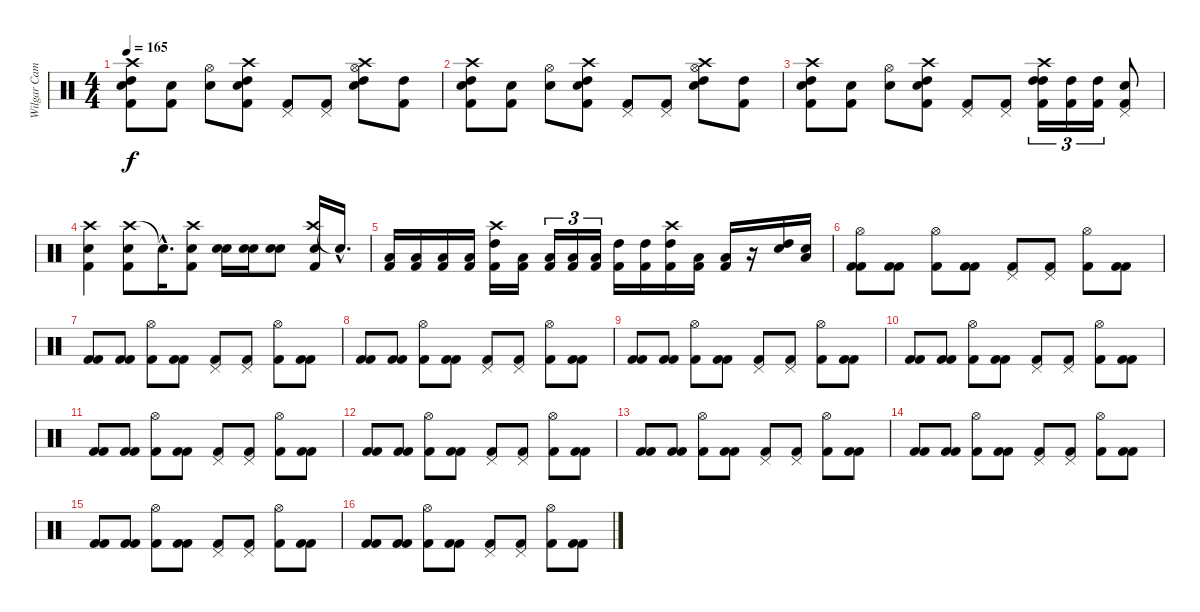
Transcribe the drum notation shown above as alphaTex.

\track ("Wilgar Campbell" "Wilgar Cam") {instrument percussion}
\staff {score}
\articulation defaults
\ts (4 4)
\tempo 165
\clef neutral
\ks c
("High Tom (hit)" "Kick (hit) 2" "Snare (hit) 2" "Crash high (hit)").8{dy f} ("Kick (hit) 2" "Snare (hit) 2").8 ("Hi-Hat (open)" "Snare (hit) 2").8 ("High Tom (hit)" "Kick (hit) 2" "Snare (hit) 2" "Crash high (hit)").8 ("Pedal Hi-Hat (hit)" "Kick (hit) 2").8 ("Pedal Hi-Hat (hit)" "Kick (hit) 2").8 ("High Tom (hit)" "Hi-Hat (open)" "Snare (hit) 2" "Crash high (hit)").8 ("Kick (hit) 2" "High Tom (hit)").8 |
("High Tom (hit)" "Kick (hit) 2" "Snare (hit) 2" "Crash high (hit)").8 ("Kick (hit) 2" "Snare (hit) 2").8 ("Hi-Hat (open)" "Snare (hit) 2").8 ("High Tom (hit)" "Kick (hit) 2" "Snare (hit) 2" "Crash high (hit)").8 ("Pedal Hi-Hat (hit)" "Kick (hit) 2").8 ("Pedal Hi-Hat (hit)" "Kick (hit) 2").8 ("High Tom (hit)" "Hi-Hat (open)" "Snare (hit) 2" "Crash high (hit)").8 ("Kick (hit) 2" "High Tom (hit)").8 |
("High Tom (hit)" "Kick (hit) 2" "Snare (hit) 2" "Crash high (hit)").8 ("Kick (hit) 2" "Snare (hit) 2").8 ("Hi-Hat (open)" "Snare (hit) 2").8 ("High Tom (hit)" "Kick (hit) 2" "Snare (hit) 2" "Crash high (hit)").8 ("Pedal Hi-Hat (hit)" "Kick (hit) 2").8 ("Pedal Hi-Hat (hit)" "Kick (hit) 2").8 ("High Tom (hit)" "Kick (hit) 2" "High Tom (hit)" "Crash high (hit)").16{tu (3 2)} ("Kick (hit) 2" "High Tom (hit)").16{tu (3 2)} ("Kick (hit) 2" "High Tom (hit)").16{tu (3 2)} ("Snare (hit) 2" "Pedal Hi-Hat (hit)" "Kick (hit) 2").8 |
("Crash high (hit)" "Kick (hit) 2" "Snare (hit) 2").4 ("Crash high (hit)" "Kick (hit) 2" "Snare (hit) 2").8 "Snare (hit)"{hac t}.16{d} ("Crash high (hit)" "Electric Snare (hit)" "Kick (hit) 2").8 ("Snare (hit) 2" "Snare (hit) 2").16 ("Electric Snare (hit)" "Electric Snare (hit)").16 ("Snare (hit) 2" "Snare (hit) 2").8 ("Crash high (hit)" "Kick (hit) 2" "Electric Snare (hit)").16 "Snare (hit)"{hac t}.16{d} |
("Low Tom (hit)" "Kick (hit) 2").16 ("Low Tom (hit)" "Kick (hit) 2").16 ("Low Tom (hit)" "Kick (hit) 2").16 ("Low Tom (hit)" "Kick (hit) 2").16 ("Crash high (hit)" "High Tom (hit)" "Kick (hit) 2").16 ("Low Tom (hit)" "Kick (hit) 2").16 ("Low Tom (hit)" "Kick (hit) 2").16{tu (3 2)} ("Low Tom (hit)" "Kick (hit) 2").16{tu (3 2)} ("Low Tom (hit)" "Kick (hit) 2").16{tu (3 2)} ("High Tom (hit)" "Kick (hit) 2").16 ("High Tom (hit)" "Kick (hit) 2").16 ("Crash high (hit)" "High Tom (hit)" "Kick (hit) 2").16 ("Low Tom (hit)" "Kick (hit) 2").16 ("Low Tom (hit)" "Kick (hit) 2").16 r.16 ("High Tom (hit)" "Snare (hit) 2").16 ("Low Tom (hit)" "Snare (hit) 2").16 |
("Hi-Hat (open)" "Kick (hit) 2" "Kick (hit) 2").8 ("Kick (hit) 2" "Kick (hit) 2").8 ("Hi-Hat (open)" "Kick (hit) 2").8 ("Kick (hit) 2" "Kick (hit) 2").8 ("Pedal Hi-Hat (hit)" "Kick (hit) 2").8 ("Pedal Hi-Hat (hit)" "Kick (hit) 2").8 ("Hi-Hat (open)" "Kick (hit) 2").8 ("Kick (hit) 2" "Kick (hit) 2").8 |
("Kick (hit) 2" "Kick (hit) 2").8 ("Kick (hit) 2" "Kick (hit) 2").8 ("Hi-Hat (open)" "Kick (hit) 2").8 ("Kick (hit) 2" "Kick (hit) 2").8 ("Pedal Hi-Hat (hit)" "Kick (hit) 2").8 ("Pedal Hi-Hat (hit)" "Kick (hit) 2").8 ("Hi-Hat (open)" "Kick (hit) 2").8 ("Kick (hit) 2" "Kick (hit) 2").8 |
("Kick (hit) 2" "Kick (hit) 2").8 ("Kick (hit) 2" "Kick (hit) 2").8 ("Hi-Hat (open)" "Kick (hit) 2").8 ("Kick (hit) 2" "Kick (hit) 2").8 ("Pedal Hi-Hat (hit)" "Kick (hit) 2").8 ("Pedal Hi-Hat (hit)" "Kick (hit) 2").8 ("Hi-Hat (open)" "Kick (hit) 2").8 ("Kick (hit) 2" "Kick (hit) 2").8 |
("Kick (hit) 2" "Kick (hit) 2").8 ("Kick (hit) 2" "Kick (hit) 2").8 ("Hi-Hat (open)" "Kick (hit) 2").8 ("Kick (hit) 2" "Kick (hit) 2").8 ("Pedal Hi-Hat (hit)" "Kick (hit) 2").8 ("Pedal Hi-Hat (hit)" "Kick (hit) 2").8 ("Hi-Hat (open)" "Kick (hit) 2").8 ("Kick (hit) 2" "Kick (hit) 2").8 |
("Kick (hit) 2" "Kick (hit) 2").8 ("Kick (hit) 2" "Kick (hit) 2").8 ("Hi-Hat (open)" "Kick (hit) 2").8 ("Kick (hit) 2" "Kick (hit) 2").8 ("Pedal Hi-Hat (hit)" "Kick (hit) 2").8 ("Pedal Hi-Hat (hit)" "Kick (hit) 2").8 ("Hi-Hat (open)" "Kick (hit) 2").8 ("Kick (hit) 2" "Kick (hit) 2").8 |
("Kick (hit) 2" "Kick (hit) 2").8 ("Kick (hit) 2" "Kick (hit) 2").8 ("Hi-Hat (open)" "Kick (hit) 2").8 ("Kick (hit) 2" "Kick (hit) 2").8 ("Pedal Hi-Hat (hit)" "Kick (hit) 2").8 ("Pedal Hi-Hat (hit)" "Kick (hit) 2").8 ("Hi-Hat (open)" "Kick (hit) 2").8 ("Kick (hit) 2" "Kick (hit) 2").8 |
("Kick (hit) 2" "Kick (hit) 2").8 ("Kick (hit) 2" "Kick (hit) 2").8 ("Hi-Hat (open)" "Kick (hit) 2").8 ("Kick (hit) 2" "Kick (hit) 2").8 ("Pedal Hi-Hat (hit)" "Kick (hit) 2").8 ("Pedal Hi-Hat (hit)" "Kick (hit) 2").8 ("Hi-Hat (open)" "Kick (hit) 2").8 ("Kick (hit) 2" "Kick (hit) 2").8 |
("Kick (hit) 2" "Kick (hit) 2").8 ("Kick (hit) 2" "Kick (hit) 2").8 ("Hi-Hat (open)" "Kick (hit) 2").8 ("Kick (hit) 2" "Kick (hit) 2").8 ("Pedal Hi-Hat (hit)" "Kick (hit) 2").8 ("Pedal Hi-Hat (hit)" "Kick (hit) 2").8 ("Hi-Hat (open)" "Kick (hit) 2").8 ("Kick (hit) 2" "Kick (hit) 2").8 |
("Kick (hit) 2" "Kick (hit) 2").8 ("Kick (hit) 2" "Kick (hit) 2").8 ("Hi-Hat (open)" "Kick (hit) 2").8 ("Kick (hit) 2" "Kick (hit) 2").8 ("Pedal Hi-Hat (hit)" "Kick (hit) 2").8 ("Pedal Hi-Hat (hit)" "Kick (hit) 2").8 ("Hi-Hat (open)" "Kick (hit) 2").8 ("Kick (hit) 2" "Kick (hit) 2").8 |
("Kick (hit) 2" "Kick (hit) 2").8 ("Kick (hit) 2" "Kick (hit) 2").8 ("Hi-Hat (open)" "Kick (hit) 2").8 ("Kick (hit) 2" "Kick (hit) 2").8 ("Pedal Hi-Hat (hit)" "Kick (hit) 2").8 ("Pedal Hi-Hat (hit)" "Kick (hit) 2").8 ("Hi-Hat (open)" "Kick (hit) 2").8 ("Kick (hit) 2" "Kick (hit) 2").8 |
("Kick (hit) 2" "Kick (hit) 2").8 ("Kick (hit) 2" "Kick (hit) 2").8 ("Hi-Hat (open)" "Kick (hit) 2").8 ("Kick (hit) 2" "Kick (hit) 2").8 ("Pedal Hi-Hat (hit)" "Kick (hit) 2").8 ("Pedal Hi-Hat (hit)" "Kick (hit) 2").8 ("Hi-Hat (open)" "Kick (hit) 2").8 ("Kick (hit) 2" "Kick (hit) 2").8
